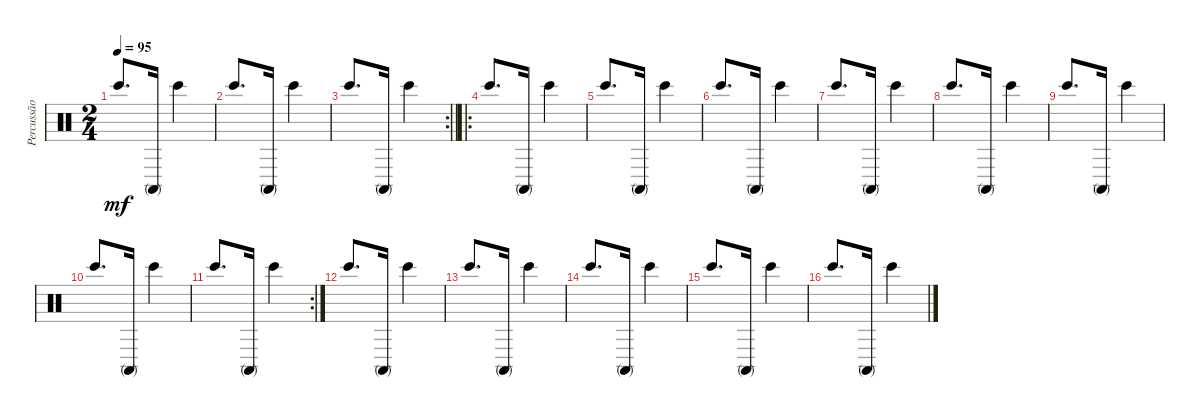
\track ("Percussão" "Percussão") {instrument percussion}
\staff {score}
\articulation defaults
\ts (2 4)
\tempo 95
\clef neutral
\ks c "Bongo High (hit)".8{d dy mf} "Conga high (mute)".16 "Bongo High (hit)".4
|
"Bongo High (hit)".8{d} "Conga high (mute)".16 "Bongo High (hit)".4 |
\rc 2
\barLineRight lightlight "Bongo High (hit)".8{d} "Conga high (mute)".16 "Bongo High (hit)".4
|
\ro "Bongo High (hit)".8{d} "Conga high (mute)".16 "Bongo High (hit)".4
|
"Bongo High (hit)".8{d} "Conga high (mute)".16 "Bongo High (hit)".4 |
"Bongo High (hit)".8{d} "Conga high (mute)".16 "Bongo High (hit)".4 |
"Bongo High (hit)".8{d} "Conga high (mute)".16 "Bongo High (hit)".4 |
"Bongo High (hit)".8{d} "Conga high (mute)".16 "Bongo High (hit)".4 |
"Bongo High (hit)".8{d} "Conga high (mute)".16 "Bongo High (hit)".4 |
"Bongo High (hit)".8{d} "Conga high (mute)".16 "Bongo High (hit)".4 |
\rc 2 "Bongo High (hit)".8{d} "Conga high (mute)".16 "Bongo High (hit)".4
|
"Bongo High (hit)".8{d} "Conga high (mute)".16 "Bongo High (hit)".4 |
"Bongo High (hit)".8{d} "Conga high (mute)".16 "Bongo High (hit)".4 |
"Bongo High (hit)".8{d} "Conga high (mute)".16 "Bongo High (hit)".4 |
"Bongo High (hit)".8{d} "Conga high (mute)".16 "Bongo High (hit)".4 |
"Bongo High (hit)".8{d} "Conga high (mute)".16 "Bongo High (hit)".4
